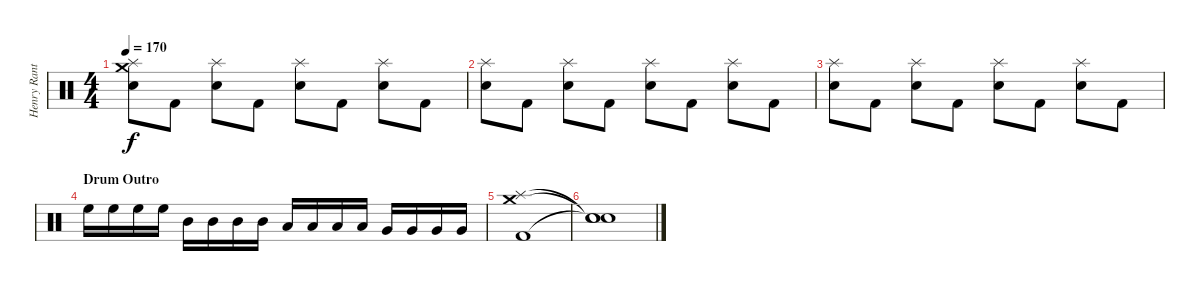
\track ("Henry Ranta -Drums-" "Henry Rant") {instrument percussion}
\staff {score}
\articulation defaults
\ts (4 4)
\tempo 170
\clef neutral
\ks c
("Splash (hit)" "Crash medium (hit)" "Snare (hit) 2").8{dy f} "Kick (hit) 2".8 ("Splash (hit)" "Snare (hit) 2").8 "Kick (hit) 2".8 ("Splash (hit)" "Snare (hit) 2").8 "Kick (hit) 2".8 ("Splash (hit)" "Snare (hit) 2").8 "Kick (hit) 2".8 |
("Splash (hit)" "Snare (hit) 2").8 "Kick (hit) 2".8 ("Splash (hit)" "Snare (hit) 2").8 "Kick (hit) 2".8 ("Splash (hit)" "Snare (hit) 2").8 "Kick (hit) 2".8 ("Splash (hit)" "Snare (hit) 2").8 "Kick (hit) 2".8 |
("Splash (hit)" "Snare (hit) 2").8 "Kick (hit) 2".8 ("Splash (hit)" "Snare (hit) 2").8 "Kick (hit) 2".8 ("Splash (hit)" "Snare (hit) 2").8 "Kick (hit) 2".8 ("Splash (hit)" "Snare (hit) 2").8 "Kick (hit) 2".8 |
\section ("" "Drum Outro")
"High Floor Tom (hit)".16 "High Floor Tom (hit)".16 "High Floor Tom (hit)".16 "High Floor Tom (hit)".16 "Mid Tom (hit)".16 "Mid Tom (hit)".16 "Mid Tom (hit)".16 "Mid Tom (hit)".16 "Low Tom (hit)".16 "Low Tom (hit)".16 "Low Tom (hit)".16 "Low Tom (hit)".16 "Very Low Tom (hit)".16 "Very Low Tom (hit)".16 "Very Low Tom (hit)".16 "Very Low Tom (hit)".16 |
("Splash (hit)" "Crash medium (hit)" "Kick (hit) 2").1 |
("Snare (hit)"{t} "Snare (hit)"{t} "Snare (hit)"{t}).1
